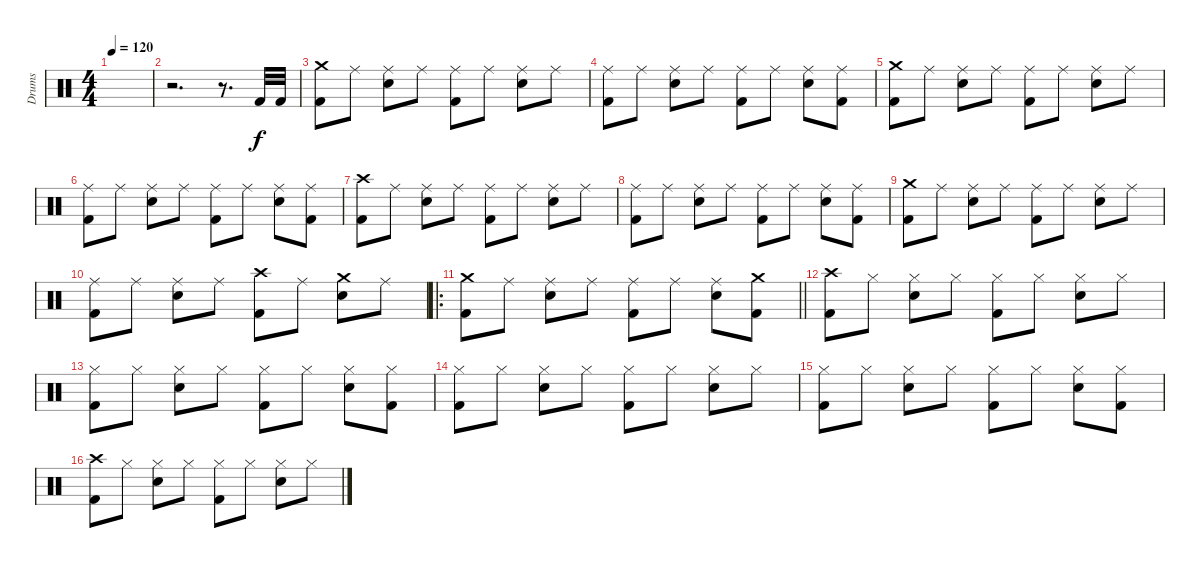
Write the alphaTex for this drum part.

\track ("Drums" "Drums") {instrument percussion}
\staff {score}
\articulation defaults
\ts (4 4)
\tempo 120
\clef neutral
\ks c
|
r.2{d} r.8{d} "Kick (hit) 2".32 "Kick (hit) 2".32 |
("Kick (hit) 2" "Crash medium (hit)").8 "Ride (middle)".8 ("Snare (hit) 2" "Ride (middle)").8 "Ride (middle)".8 ("Kick (hit) 2" "Ride (middle)").8 "Ride (middle)".8 ("Snare (hit) 2" "Ride (middle)").8 "Ride (middle)".8 |
("Kick (hit) 2" "Ride (middle)").8 "Ride (middle)".8 ("Snare (hit) 2" "Ride (middle)").8 "Ride (middle)".8 ("Kick (hit) 2" "Ride (middle)").8 "Ride (middle)".8 ("Snare (hit) 2" "Ride (middle)").8 ("Kick (hit) 2" "Ride (middle)").8 |
("Kick (hit) 2" "Crash medium (hit)").8 "Ride (middle)".8 ("Snare (hit) 2" "Ride (middle)").8 "Ride (middle)".8 ("Kick (hit) 2" "Ride (middle)").8 "Ride (middle)".8 ("Snare (hit) 2" "Ride (middle)").8 "Ride (middle)".8 |
("Kick (hit) 2" "Ride (middle)").8 "Ride (middle)".8 ("Snare (hit) 2" "Ride (middle)").8 "Ride (middle)".8 ("Kick (hit) 2" "Ride (middle)").8 "Ride (middle)".8 ("Snare (hit) 2" "Ride (middle)").8 ("Kick (hit) 2" "Ride (middle)").8 |
("Kick (hit) 2" "Crash high (hit)").8 "Ride (middle)".8 ("Snare (hit) 2" "Ride (middle)").8 "Ride (middle)".8 ("Kick (hit) 2" "Ride (middle)").8 "Ride (middle)".8 ("Snare (hit) 2" "Ride (middle)").8 "Ride (middle)".8 |
("Kick (hit) 2" "Ride (middle)").8 "Ride (middle)".8 ("Snare (hit) 2" "Ride (middle)").8 "Ride (middle)".8 ("Kick (hit) 2" "Ride (middle)").8 "Ride (middle)".8 ("Snare (hit) 2" "Ride (middle)").8 ("Kick (hit) 2" "Ride (middle)").8 |
("Kick (hit) 2" "Crash medium (hit)").8 "Ride (middle)".8 ("Snare (hit) 2" "Ride (middle)").8 "Ride (middle)".8 ("Kick (hit) 2" "Ride (middle)").8 "Ride (middle)".8 ("Snare (hit) 2" "Ride (middle)").8 "Ride (middle)".8 |
("Kick (hit) 2" "Ride (middle)").8 "Ride (middle)".8 ("Snare (hit) 2" "Ride (middle)").8 "Ride (middle)".8 ("Kick (hit) 2" "Crash high (hit)").8 "Ride (middle)".8 ("Snare (hit) 2" "Crash medium (hit)").8 "Ride (middle)".8 |
\ro
\barLineRight lightlight
("Kick (hit) 2" "Crash medium (hit)").8 "Ride (middle)".8 ("Snare (hit) 2" "Ride (middle)").8 "Ride (middle)".8 ("Kick (hit) 2" "Ride (middle)").8 "Ride (middle)".8 ("Snare (hit) 2" "Ride (middle)").8 ("Kick (hit) 2" "Crash medium (hit)").8 |
("Kick (hit) 2" "Crash high (hit)").8 "Hi-Hat (closed)".8 ("Snare (hit) 2" "Hi-Hat (closed)").8 "Hi-Hat (closed)".8 ("Kick (hit) 2" "Hi-Hat (closed)").8 "Hi-Hat (closed)".8 ("Snare (hit) 2" "Hi-Hat (closed)").8 "Hi-Hat (closed)".8 |
("Kick (hit) 2" "Hi-Hat (closed)").8 "Hi-Hat (closed)".8 ("Snare (hit) 2" "Hi-Hat (closed)").8 "Hi-Hat (closed)".8 ("Kick (hit) 2" "Hi-Hat (closed)").8 "Hi-Hat (closed)".8 ("Snare (hit) 2" "Hi-Hat (closed)").8 ("Kick (hit) 2" "Hi-Hat (closed)").8 |
("Kick (hit) 2" "Hi-Hat (closed)").8 "Hi-Hat (closed)".8 ("Snare (hit) 2" "Hi-Hat (closed)").8 "Hi-Hat (closed)".8 ("Kick (hit) 2" "Hi-Hat (closed)").8 "Hi-Hat (closed)".8 ("Snare (hit) 2" "Hi-Hat (closed)").8 "Hi-Hat (closed)".8 |
("Kick (hit) 2" "Hi-Hat (closed)").8 "Hi-Hat (closed)".8 ("Snare (hit) 2" "Hi-Hat (closed)").8 "Hi-Hat (closed)".8 ("Kick (hit) 2" "Hi-Hat (closed)").8 "Hi-Hat (closed)".8 ("Snare (hit) 2" "Hi-Hat (closed)").8 ("Kick (hit) 2" "Hi-Hat (closed)").8 |
("Kick (hit) 2" "Crash high (hit)").8 "Hi-Hat (closed)".8 ("Snare (hit) 2" "Hi-Hat (closed)").8 "Hi-Hat (closed)".8 ("Kick (hit) 2" "Hi-Hat (closed)").8 "Hi-Hat (closed)".8 ("Snare (hit) 2" "Hi-Hat (closed)").8 "Hi-Hat (closed)".8
